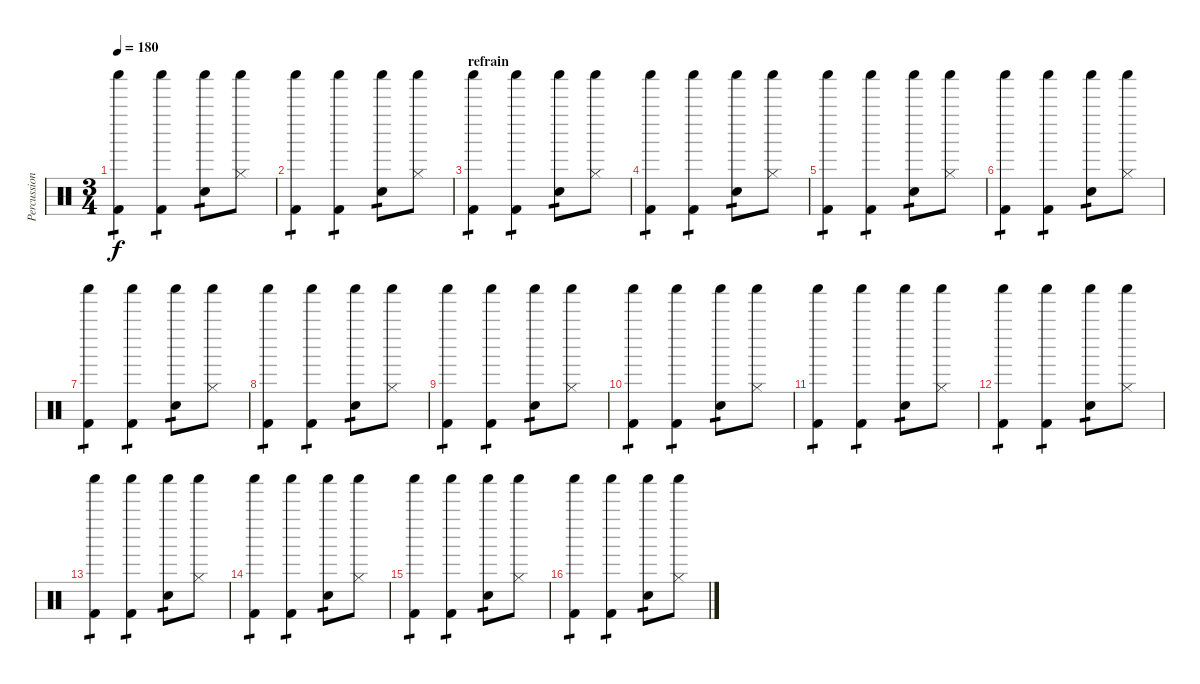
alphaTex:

\track ("Percussions" "Percussion") {instrument percussion}
\staff {score}
\articulation defaults
\ts (3 4)
\tempo 180
\clef neutral
\ks c
("Kick (hit) 2" "Shaker (hit)").4{tp 1 dy f} ("Kick (hit) 2" "Shaker (hit)").4{tp 1} ("Shaker (hit)" "Snare (hit) 2").8{tp 1} ("Shaker (hit)" "Hi-Hat (closed)").8 |
("Kick (hit) 2" "Shaker (hit)").4{tp 1} ("Kick (hit) 2" "Shaker (hit)").4{tp 1} ("Shaker (hit)" "Snare (hit) 2").8{tp 1} ("Shaker (hit)" "Hi-Hat (closed)").8 |
\section ("" "refrain")
("Kick (hit) 2" "Shaker (hit)").4{tp 1} ("Kick (hit) 2" "Shaker (hit)").4{tp 1} ("Shaker (hit)" "Snare (hit) 2").8{tp 1} ("Shaker (hit)" "Hi-Hat (closed)").8 |
("Kick (hit) 2" "Shaker (hit)").4{tp 1} ("Kick (hit) 2" "Shaker (hit)").4{tp 1} ("Shaker (hit)" "Snare (hit) 2").8{tp 1} ("Shaker (hit)" "Hi-Hat (closed)").8 |
("Kick (hit) 2" "Shaker (hit)").4{tp 1} ("Kick (hit) 2" "Shaker (hit)").4{tp 1} ("Shaker (hit)" "Snare (hit) 2").8{tp 1} ("Shaker (hit)" "Hi-Hat (closed)").8 |
("Kick (hit) 2" "Shaker (hit)").4{tp 1} ("Kick (hit) 2" "Shaker (hit)").4{tp 1} ("Shaker (hit)" "Snare (hit) 2").8{tp 1} ("Shaker (hit)" "Hi-Hat (closed)").8 |
("Kick (hit) 2" "Shaker (hit)").4{tp 1} ("Kick (hit) 2" "Shaker (hit)").4{tp 1} ("Shaker (hit)" "Snare (hit) 2").8{tp 1} ("Shaker (hit)" "Hi-Hat (closed)").8 |
("Kick (hit) 2" "Shaker (hit)").4{tp 1} ("Kick (hit) 2" "Shaker (hit)").4{tp 1} ("Shaker (hit)" "Snare (hit) 2").8{tp 1} ("Shaker (hit)" "Hi-Hat (closed)").8 |
("Kick (hit) 2" "Shaker (hit)").4{tp 1} ("Kick (hit) 2" "Shaker (hit)").4{tp 1} ("Shaker (hit)" "Snare (hit) 2").8{tp 1} ("Shaker (hit)" "Hi-Hat (closed)").8 |
("Kick (hit) 2" "Shaker (hit)").4{tp 1} ("Kick (hit) 2" "Shaker (hit)").4{tp 1} ("Shaker (hit)" "Snare (hit) 2").8{tp 1} ("Shaker (hit)" "Hi-Hat (closed)").8 |
("Kick (hit) 2" "Shaker (hit)").4{tp 1} ("Kick (hit) 2" "Shaker (hit)").4{tp 1} ("Shaker (hit)" "Snare (hit) 2").8{tp 1} ("Shaker (hit)" "Hi-Hat (closed)").8 |
("Kick (hit) 2" "Shaker (hit)").4{tp 1} ("Kick (hit) 2" "Shaker (hit)").4{tp 1} ("Shaker (hit)" "Snare (hit) 2").8{tp 1} ("Shaker (hit)" "Hi-Hat (closed)").8 |
("Kick (hit) 2" "Shaker (hit)").4{tp 1} ("Kick (hit) 2" "Shaker (hit)").4{tp 1} ("Shaker (hit)" "Snare (hit) 2").8{tp 1} ("Shaker (hit)" "Hi-Hat (closed)").8 |
("Kick (hit) 2" "Shaker (hit)").4{tp 1} ("Kick (hit) 2" "Shaker (hit)").4{tp 1} ("Shaker (hit)" "Snare (hit) 2").8{tp 1} ("Shaker (hit)" "Hi-Hat (closed)").8 |
("Kick (hit) 2" "Shaker (hit)").4{tp 1} ("Kick (hit) 2" "Shaker (hit)").4{tp 1} ("Shaker (hit)" "Snare (hit) 2").8{tp 1} ("Shaker (hit)" "Hi-Hat (closed)").8 |
("Kick (hit) 2" "Shaker (hit)").4{tp 1} ("Kick (hit) 2" "Shaker (hit)").4{tp 1} ("Shaker (hit)" "Snare (hit) 2").8{tp 1} ("Shaker (hit)" "Hi-Hat (closed)").8
